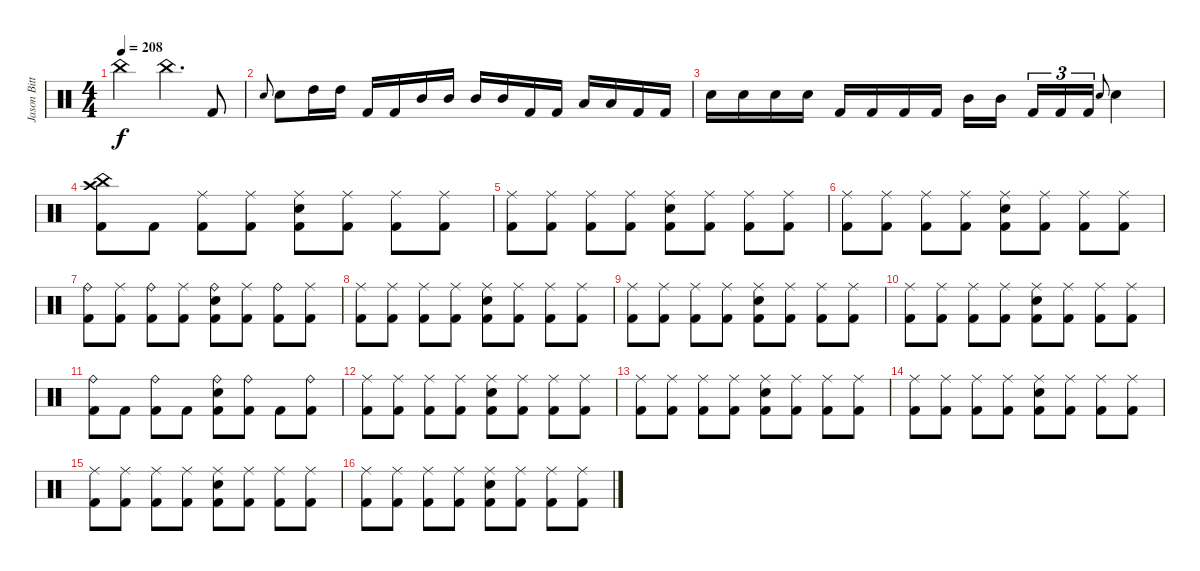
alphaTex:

\track ("Jason Bittner" "Jason Bitt") {instrument percussion}
\staff {score}
\articulation defaults
\ts (4 4)
\tempo 208
\clef neutral
\ks c "China (hit)".2{dy f} "China (hit)".4{d} "Kick (hit) 2".8
|
"Electric Snare (hit)".8{gr onbeat} "Electric Snare (hit)".8 "High Tom (hit)".16 "High Tom (hit)".16 "Kick (hit) 2".16 "Kick (hit) 2".16 "Mid Tom (hit)".16 "Mid Tom (hit)".16 "Mid Tom (hit)".16 "Mid Tom (hit)".16 "Kick (hit) 2".16 "Kick (hit) 2".16 "Low Tom (hit)".16 "Low Tom (hit)".16 "Kick (hit) 2".16 "Kick (hit) 2".16 |
"Electric Snare (hit)".16 "Electric Snare (hit)".16 "Electric Snare (hit)".16 "Electric Snare (hit)".16 "Kick (hit) 2".16 "Kick (hit) 2".16 "Kick (hit) 2".16 "Kick (hit) 2".16 "Mid Tom (hit)".16 "Mid Tom (hit)".16{beam splitsecondary} "Kick (hit) 2".16{tu (3 2)} "Kick (hit) 2".16{tu (3 2)} "Kick (hit) 2".16{tu (3 2)} "Electric Snare (hit)".8{gr onbeat} "Electric Snare (hit)".4 |
("China (hit)" "Crash high (hit)" "Kick (hit) 2").8 "Kick (hit) 2".8 ("Ride (middle)" "Kick (hit) 2").8 ("Ride (middle)" "Kick (hit) 2").8 ("Ride (middle)" "Electric Snare (hit)" "Kick (hit) 2").8 ("Ride (middle)" "Kick (hit) 2").8 ("Ride (middle)" "Kick (hit) 2").8 ("Ride (middle)" "Kick (hit) 2").8 |
("Ride (middle)" "Kick (hit) 2").8 ("Ride (middle)" "Kick (hit) 2").8 ("Ride (middle)" "Kick (hit) 2").8 ("Ride (middle)" "Kick (hit) 2").8 ("Ride (middle)" "Electric Snare (hit)" "Kick (hit) 2").8 ("Ride (middle)" "Kick (hit) 2").8 ("Ride (middle)" "Kick (hit) 2").8 ("Ride (middle)" "Kick (hit) 2").8 |
("Ride (middle)" "Kick (hit) 2").8 ("Ride (middle)" "Kick (hit) 2").8 ("Ride (middle)" "Kick (hit) 2").8 ("Ride (middle)" "Kick (hit) 2").8 ("Ride (middle)" "Electric Snare (hit)" "Kick (hit) 2").8 ("Ride (middle)" "Kick (hit) 2").8 ("Ride (middle)" "Kick (hit) 2").8 ("Ride (middle)" "Kick (hit) 2").8 |
("Ride (bell)" "Kick (hit) 2").8 ("Ride (middle)" "Kick (hit) 2").8 ("Ride (bell)" "Kick (hit) 2").8 ("Ride (middle)" "Kick (hit) 2").8 ("Ride (bell)" "Electric Snare (hit)" "Kick (hit) 2").8 ("Ride (middle)" "Kick (hit) 2").8 ("Ride (bell)" "Kick (hit) 2").8 ("Ride (middle)" "Kick (hit) 2").8 |
("Ride (middle)" "Kick (hit) 2").8 ("Ride (middle)" "Kick (hit) 2").8 ("Ride (middle)" "Kick (hit) 2").8 ("Ride (middle)" "Kick (hit) 2").8 ("Ride (middle)" "Electric Snare (hit)" "Kick (hit) 2").8 ("Ride (middle)" "Kick (hit) 2").8 ("Ride (middle)" "Kick (hit) 2").8 ("Ride (middle)" "Kick (hit) 2").8 |
("Ride (middle)" "Kick (hit) 2").8 ("Ride (middle)" "Kick (hit) 2").8 ("Ride (middle)" "Kick (hit) 2").8 ("Ride (middle)" "Kick (hit) 2").8 ("Ride (middle)" "Electric Snare (hit)" "Kick (hit) 2").8 ("Ride (middle)" "Kick (hit) 2").8 ("Ride (middle)" "Kick (hit) 2").8 ("Ride (middle)" "Kick (hit) 2").8 |
("Ride (middle)" "Kick (hit) 2").8 ("Ride (middle)" "Kick (hit) 2").8 ("Ride (middle)" "Kick (hit) 2").8 ("Ride (middle)" "Kick (hit) 2").8 ("Ride (middle)" "Electric Snare (hit)" "Kick (hit) 2").8 ("Ride (middle)" "Kick (hit) 2").8 ("Ride (middle)" "Kick (hit) 2").8 ("Ride (middle)" "Kick (hit) 2").8 |
("Ride (bell)" "Kick (hit) 2").8 "Kick (hit) 2".8 ("Ride (bell)" "Kick (hit) 2").8 "Kick (hit) 2".8 ("Ride (bell)" "Electric Snare (hit)" "Kick (hit) 2").8 ("Ride (bell)" "Kick (hit) 2").8 "Kick (hit) 2".8 ("Ride (bell)" "Kick (hit) 2").8 |
("Ride (middle)" "Kick (hit) 2").8 ("Ride (middle)" "Kick (hit) 2").8 ("Ride (middle)" "Kick (hit) 2").8 ("Ride (middle)" "Kick (hit) 2").8 ("Ride (middle)" "Electric Snare (hit)" "Kick (hit) 2").8 ("Ride (middle)" "Kick (hit) 2").8 ("Ride (middle)" "Kick (hit) 2").8 ("Ride (middle)" "Kick (hit) 2").8 |
("Ride (middle)" "Kick (hit) 2").8 ("Ride (middle)" "Kick (hit) 2").8 ("Ride (middle)" "Kick (hit) 2").8 ("Ride (middle)" "Kick (hit) 2").8 ("Ride (middle)" "Electric Snare (hit)" "Kick (hit) 2").8 ("Ride (middle)" "Kick (hit) 2").8 ("Ride (middle)" "Kick (hit) 2").8 ("Ride (middle)" "Kick (hit) 2").8 |
("Ride (middle)" "Kick (hit) 2").8 ("Ride (middle)" "Kick (hit) 2").8 ("Ride (middle)" "Kick (hit) 2").8 ("Ride (middle)" "Kick (hit) 2").8 ("Ride (middle)" "Electric Snare (hit)" "Kick (hit) 2").8 ("Ride (middle)" "Kick (hit) 2").8 ("Ride (middle)" "Kick (hit) 2").8 ("Ride (middle)" "Kick (hit) 2").8 |
("Ride (middle)" "Kick (hit) 2").8 ("Ride (middle)" "Kick (hit) 2").8 ("Ride (middle)" "Kick (hit) 2").8 ("Ride (middle)" "Kick (hit) 2").8 ("Ride (middle)" "Electric Snare (hit)" "Kick (hit) 2").8 ("Ride (middle)" "Kick (hit) 2").8 ("Ride (middle)" "Kick (hit) 2").8 ("Ride (middle)" "Kick (hit) 2").8 |
("Ride (middle)" "Kick (hit) 2").8 ("Ride (middle)" "Kick (hit) 2").8 ("Ride (middle)" "Kick (hit) 2").8 ("Ride (middle)" "Kick (hit) 2").8 ("Ride (middle)" "Electric Snare (hit)" "Kick (hit) 2").8 ("Ride (middle)" "Kick (hit) 2").8 ("Ride (middle)" "Kick (hit) 2").8 ("Ride (middle)" "Kick (hit) 2").8
